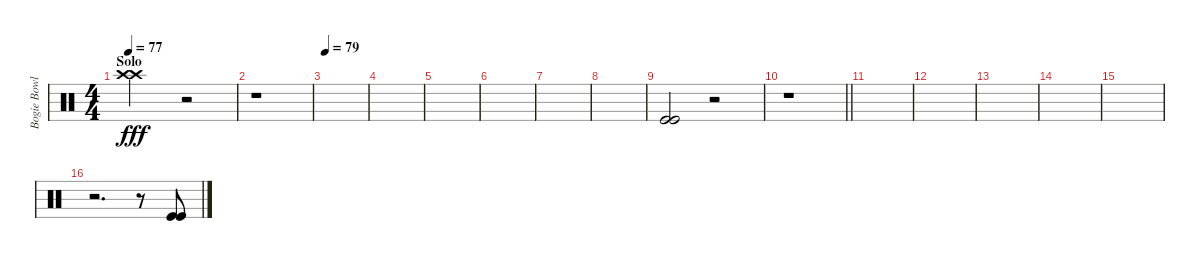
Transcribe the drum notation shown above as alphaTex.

\track ("Bogie Bowles" "Bogie Bowl") {instrument percussion}
\staff {score}
\articulation defaults
\ts (4 4)
\section ("" "Solo")
\tempo 77
\clef neutral
\ks c
("Crash high (hit)" "Crash high (hit)").2{dy fff} r.2 |
r.1 |
\tempo 79
|
|
|
|
|
|
("Kick (hit)" "Kick (hit)").2 r.2 |
\barLineRight lightlight
r.1 |
|
|
|
|
|
r.2{d} r.8 ("Kick (hit)" "Kick (hit)").8
